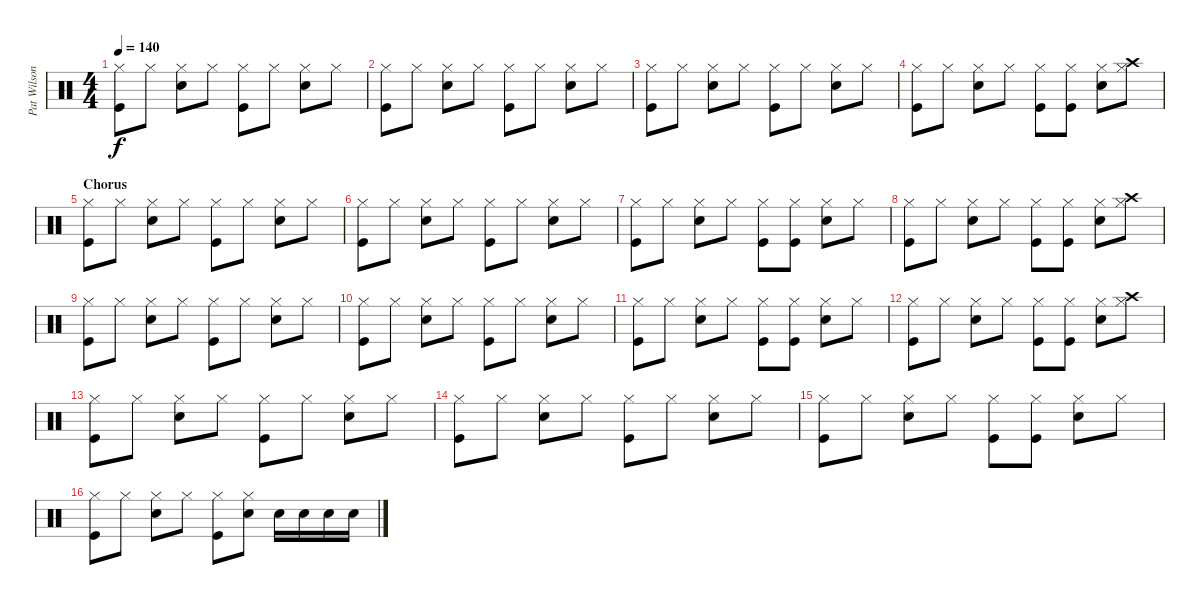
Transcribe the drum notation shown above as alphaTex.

\track ("Pat Wilson " "Pat Wilson") {instrument percussion}
\staff {score}
\articulation defaults
\ts (4 4)
\tempo 140
\clef neutral
\ks c
("Kick (hit)" "Hi-Hat (closed)").8{dy f} "Hi-Hat (closed)".8 ("Snare (hit) 2" "Hi-Hat (closed)").8 "Hi-Hat (closed)".8 ("Kick (hit)" "Hi-Hat (closed)").8 "Hi-Hat (closed)".8 ("Snare (hit) 2" "Hi-Hat (closed)").8 "Hi-Hat (closed)".8 |
("Kick (hit)" "Hi-Hat (closed)").8 "Hi-Hat (closed)".8 ("Snare (hit) 2" "Hi-Hat (closed)").8 "Hi-Hat (closed)".8 ("Kick (hit)" "Hi-Hat (closed)").8 "Hi-Hat (closed)".8 ("Snare (hit) 2" "Hi-Hat (closed)").8 "Hi-Hat (closed)".8 |
("Kick (hit)" "Hi-Hat (closed)").8 "Hi-Hat (closed)".8 ("Snare (hit) 2" "Hi-Hat (closed)").8 "Hi-Hat (closed)".8 ("Kick (hit)" "Hi-Hat (closed)").8 "Hi-Hat (closed)".8 ("Snare (hit) 2" "Hi-Hat (closed)").8 "Hi-Hat (closed)".8 |
("Kick (hit)" "Hi-Hat (closed)").8 "Hi-Hat (closed)".8 ("Snare (hit) 2" "Hi-Hat (closed)").8 "Hi-Hat (closed)".8 ("Kick (hit)" "Hi-Hat (closed)").8 ("Kick (hit)" "Hi-Hat (closed)").8 ("Snare (hit) 2" "Hi-Hat (closed)").8 ("Crash high (hit)" "Hi-Hat (closed)").8 |
\section ("" "Chorus")
("Kick (hit)" "Hi-Hat (closed)").8 "Hi-Hat (closed)".8 ("Snare (hit) 2" "Hi-Hat (closed)").8 "Hi-Hat (closed)".8 ("Kick (hit)" "Hi-Hat (closed)").8 "Hi-Hat (closed)".8 ("Snare (hit) 2" "Hi-Hat (closed)").8 "Hi-Hat (closed)".8 |
("Kick (hit)" "Hi-Hat (closed)").8 "Hi-Hat (closed)".8 ("Snare (hit) 2" "Hi-Hat (closed)").8 "Hi-Hat (closed)".8 ("Kick (hit)" "Hi-Hat (closed)").8 "Hi-Hat (closed)".8 ("Snare (hit) 2" "Hi-Hat (closed)").8 "Hi-Hat (closed)".8 |
("Kick (hit)" "Hi-Hat (closed)").8 "Hi-Hat (closed)".8 ("Snare (hit) 2" "Hi-Hat (closed)").8 "Hi-Hat (closed)".8 ("Kick (hit)" "Hi-Hat (closed)").8 ("Kick (hit)" "Hi-Hat (closed)").8 ("Snare (hit) 2" "Hi-Hat (closed)").8 "Hi-Hat (closed)".8 |
("Kick (hit)" "Hi-Hat (closed)").8 "Hi-Hat (closed)".8 ("Snare (hit) 2" "Hi-Hat (closed)").8 "Hi-Hat (closed)".8 ("Kick (hit)" "Hi-Hat (closed)").8 ("Kick (hit)" "Hi-Hat (closed)").8 ("Snare (hit) 2" "Hi-Hat (closed)").8 ("Crash high (hit)" "Hi-Hat (closed)").8 |
("Kick (hit)" "Hi-Hat (closed)").8 "Hi-Hat (closed)".8 ("Snare (hit) 2" "Hi-Hat (closed)").8 "Hi-Hat (closed)".8 ("Kick (hit)" "Hi-Hat (closed)").8 "Hi-Hat (closed)".8 ("Snare (hit) 2" "Hi-Hat (closed)").8 "Hi-Hat (closed)".8 |
("Kick (hit)" "Hi-Hat (closed)").8 "Hi-Hat (closed)".8 ("Snare (hit) 2" "Hi-Hat (closed)").8 "Hi-Hat (closed)".8 ("Kick (hit)" "Hi-Hat (closed)").8 "Hi-Hat (closed)".8 ("Snare (hit) 2" "Hi-Hat (closed)").8 "Hi-Hat (closed)".8 |
("Kick (hit)" "Hi-Hat (closed)").8 "Hi-Hat (closed)".8 ("Snare (hit) 2" "Hi-Hat (closed)").8 "Hi-Hat (closed)".8 ("Kick (hit)" "Hi-Hat (closed)").8 ("Kick (hit)" "Hi-Hat (closed)").8 ("Snare (hit) 2" "Hi-Hat (closed)").8 "Hi-Hat (closed)".8 |
("Kick (hit)" "Hi-Hat (closed)").8 "Hi-Hat (closed)".8 ("Snare (hit) 2" "Hi-Hat (closed)").8 "Hi-Hat (closed)".8 ("Kick (hit)" "Hi-Hat (closed)").8 ("Kick (hit)" "Hi-Hat (closed)").8 ("Snare (hit) 2" "Hi-Hat (closed)").8 ("Crash high (hit)" "Hi-Hat (closed)").8 |
("Kick (hit)" "Hi-Hat (closed)").8 "Hi-Hat (closed)".8 ("Snare (hit) 2" "Hi-Hat (closed)").8 "Hi-Hat (closed)".8 ("Kick (hit)" "Hi-Hat (closed)").8 "Hi-Hat (closed)".8 ("Snare (hit) 2" "Hi-Hat (closed)").8 "Hi-Hat (closed)".8 |
("Kick (hit)" "Hi-Hat (closed)").8 "Hi-Hat (closed)".8 ("Snare (hit) 2" "Hi-Hat (closed)").8 "Hi-Hat (closed)".8 ("Kick (hit)" "Hi-Hat (closed)").8 "Hi-Hat (closed)".8 ("Snare (hit) 2" "Hi-Hat (closed)").8 "Hi-Hat (closed)".8 |
("Kick (hit)" "Hi-Hat (closed)").8 "Hi-Hat (closed)".8 ("Snare (hit) 2" "Hi-Hat (closed)").8 "Hi-Hat (closed)".8 ("Kick (hit)" "Hi-Hat (closed)").8 ("Kick (hit)" "Hi-Hat (closed)").8 ("Snare (hit) 2" "Hi-Hat (closed)").8 "Hi-Hat (closed)".8 |
("Kick (hit)" "Hi-Hat (closed)").8 "Hi-Hat (closed)".8 ("Snare (hit) 2" "Hi-Hat (closed)").8 "Hi-Hat (closed)".8 ("Kick (hit)" "Hi-Hat (closed)").8 ("Snare (hit) 2" "Hi-Hat (closed)").8 "Snare (hit) 2".16 "Snare (hit) 2".16 "Snare (hit) 2".16 "Snare (hit) 2".16
